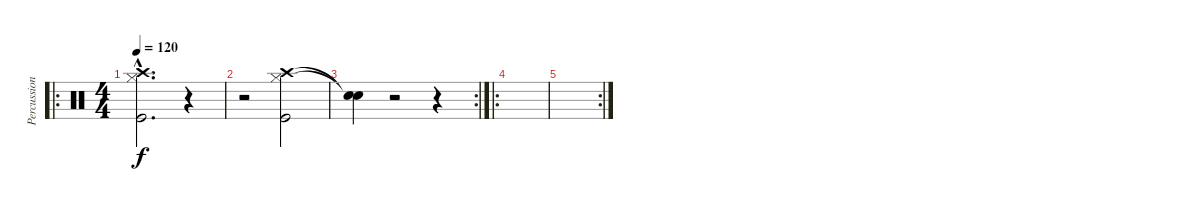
\track ("Percussions" "Percussion") {instrument percussion}
\staff {score}
\articulation defaults
\ro
\ts (4 4)
\tempo 120
\clef neutral
\ks c
("Hi-Hat (closed)"{hac} "Crash high (hit)"{hac} "Kick (hit)"{hac}).2{d dy f} r.4 |
r.2 ("Hi-Hat (closed)" "Crash high (hit)" "Kick (hit)").2 |
\rc 2
("Snare (hit)"{t} "Snare (hit)"{t}).4 r.2 r.4 |
\ro
|
\rc 2
